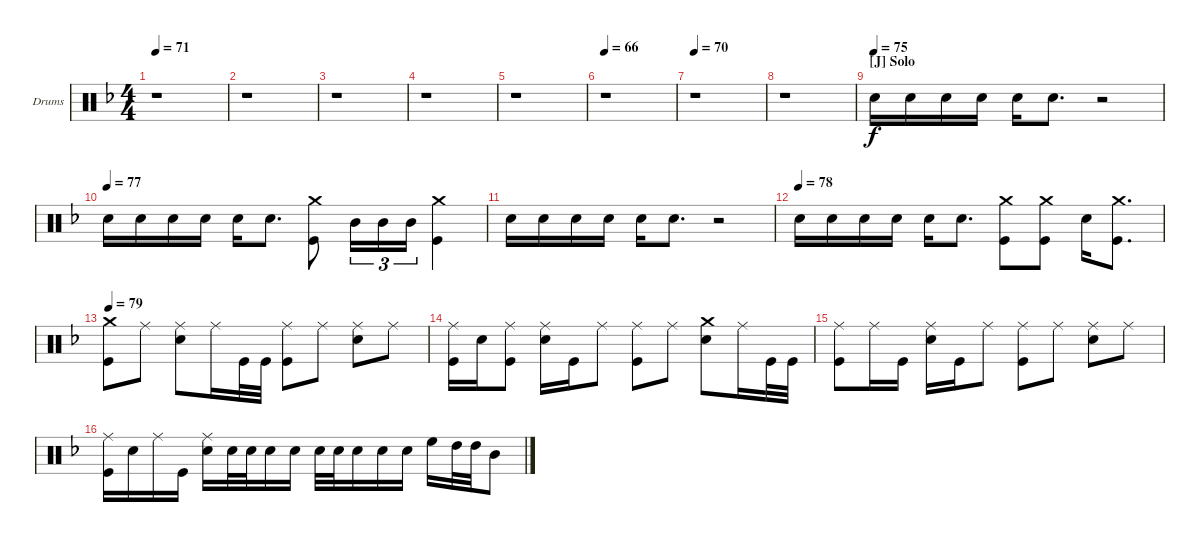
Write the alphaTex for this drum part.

\bracketExtendMode groupsimilarinstruments
\firstSystemTrackNameOrientation horizontal
\otherSystemsTrackNameOrientation horizontal
\track ("Vinny Appice" "Drums") {instrument percussion}
\staff {score}
\articulation defaults
\ts (4 4)
\tempo 71
\clef neutral
\ks dminor
r.1{dy f} |
r.1 |
r.1 |
r.1 |
r.1 |
\tempo 66
r.1 |
\tempo 70
r.1 |
r.1 |
\section ("J" "Solo")
\tempo (75)
"Snare (hit) 2".16 "Snare (hit) 2".16 "Snare (hit) 2".16 "Snare (hit) 2".16 "Snare (hit) 2".16 "Snare (hit) 2".8{d} r.2 |
\tempo (77)
"Snare (hit) 2".16 "Snare (hit) 2".16 "Snare (hit) 2".16 "Snare (hit) 2".16 "Snare (hit) 2".16 "Snare (hit) 2".8{d} ("Crash medium (hit)" "Kick (hit)").8 "Mid Tom (hit)".16{tu (3 2)} "Mid Tom (hit)".16{tu (3 2)} "Mid Tom (hit)".16{tu (3 2)} ("Crash medium (hit)" "Kick (hit)").4 |
"Snare (hit) 2".16 "Snare (hit) 2".16 "Snare (hit) 2".16 "Snare (hit) 2".16 "Snare (hit) 2".16 "Snare (hit) 2".8{d} r.2 |
\tempo (78)
"Snare (hit) 2".16 "Snare (hit) 2".16 "Snare (hit) 2".16 "Snare (hit) 2".16 "Snare (hit) 2".16 "Snare (hit) 2".8{d} ("Crash medium (hit)" "Kick (hit)").8 ("Crash medium (hit)" "Kick (hit)").8 "Snare (hit) 2".16 ("Crash medium (hit)" "Kick (hit)").8{d} |
\tempo 79
("Crash medium (hit)" "Kick (hit)").8 "Ride (middle)".8 ("Ride (middle)" "Snare (hit) 2").8 "Ride (middle)".16 "Kick (hit)".32 "Kick (hit)".32 ("Ride (middle)" "Kick (hit)").8 "Ride (middle)".8 ("Ride (middle)" "Snare (hit) 2").8 "Ride (middle)".8 |
("Ride (middle)" "Kick (hit)").16 "Snare (hit) 2".16 ("Ride (middle)" "Kick (hit)").8 ("Ride (middle)" "Snare (hit) 2").16 "Kick (hit)".16 "Ride (middle)".8 ("Ride (middle)" "Kick (hit)").8 "Ride (middle)".8 ("Crash medium (hit)" "Snare (hit) 2").8 "Ride (middle)".16 "Kick (hit)".32 "Kick (hit)".32 |
("Ride (middle)" "Kick (hit)").8 "Ride (middle)".16 "Kick (hit)".16 ("Ride (middle)" "Snare (hit) 2").16 "Kick (hit)".16 "Ride (middle)".8 ("Ride (middle)" "Kick (hit)").8 "Ride (middle)".8 ("Ride (middle)" "Snare (hit) 2").8 "Ride (middle)".8 |
("Ride (middle)" "Kick (hit)").16 "Snare (hit) 2".16 "Ride (middle)".16 "Kick (hit)".16 ("Ride (middle)" "Snare (hit) 2").16 "Snare (hit) 2".32 "Snare (hit) 2".32 "Snare (hit) 2".16 "Snare (hit) 2".16 "Snare (hit) 2".32 "Snare (hit) 2".32 "Snare (hit) 2".16 "Snare (hit) 2".16 "Snare (hit) 2".16 "High Floor Tom (hit)".16 "High Tom (hit)".32 "High Tom (hit)".32 "Mid Tom (hit)".8
